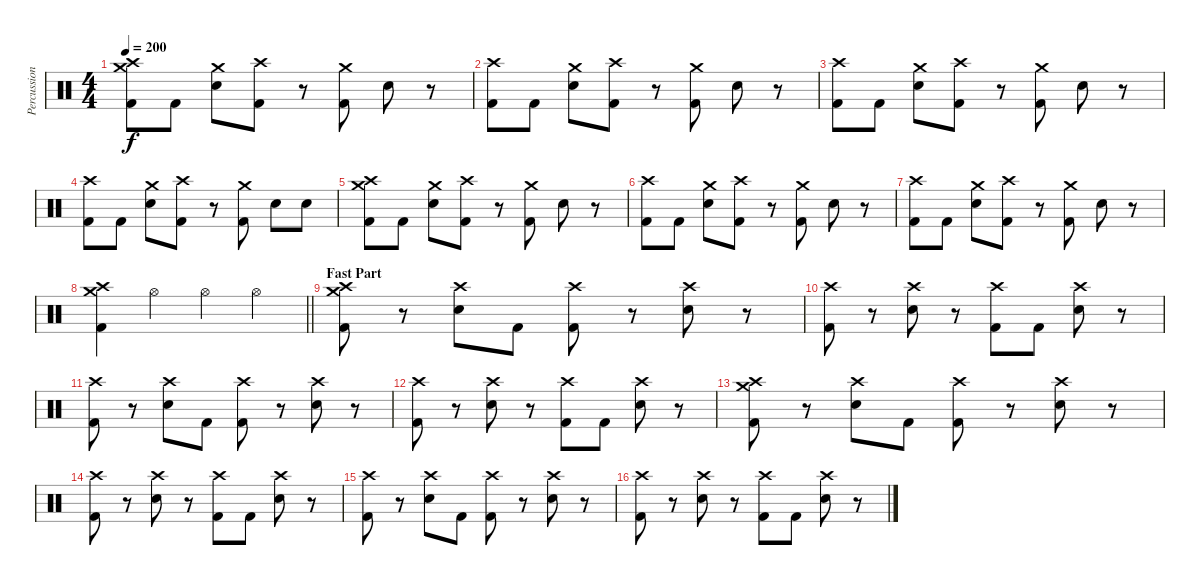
\track ("Percussion" "Percussion") {instrument percussion}
\staff {score}
\articulation defaults
\ts (4 4)
\tempo 200
\clef neutral
\ks c
("Crash high (hit)" "Crash medium (hit)" "Kick (hit) 2").8{dy f} "Kick (hit) 2".8 ("Crash medium (hit)" "Snare (hit) 2").8 ("Crash high (hit)" "Kick (hit) 2").8 r.8 ("Crash medium (hit)" "Kick (hit) 2").8 "Snare (hit) 2".8 r.8 |
("Crash high (hit)" "Kick (hit) 2").8 "Kick (hit) 2".8 ("Crash medium (hit)" "Snare (hit) 2").8 ("Crash high (hit)" "Kick (hit) 2").8 r.8 ("Crash medium (hit)" "Kick (hit) 2").8 "Snare (hit) 2".8 r.8 |
("Crash high (hit)" "Kick (hit) 2").8 "Kick (hit) 2".8 ("Crash medium (hit)" "Snare (hit) 2").8 ("Crash high (hit)" "Kick (hit) 2").8 r.8 ("Crash medium (hit)" "Kick (hit) 2").8 "Snare (hit) 2".8 r.8 |
("Crash high (hit)" "Kick (hit) 2").8 "Kick (hit) 2".8 ("Crash medium (hit)" "Snare (hit) 2").8 ("Crash high (hit)" "Kick (hit) 2").8 r.8 ("Crash medium (hit)" "Kick (hit) 2").8 "Snare (hit) 2".8 "Snare (hit) 2".8 |
("Crash high (hit)" "Crash medium (hit)" "Kick (hit) 2").8 "Kick (hit) 2".8 ("Crash medium (hit)" "Snare (hit) 2").8 ("Crash high (hit)" "Kick (hit) 2").8 r.8 ("Crash medium (hit)" "Kick (hit) 2").8 "Snare (hit) 2".8 r.8 |
("Crash high (hit)" "Kick (hit) 2").8 "Kick (hit) 2".8 ("Crash medium (hit)" "Snare (hit) 2").8 ("Crash high (hit)" "Kick (hit) 2").8 r.8 ("Crash medium (hit)" "Kick (hit) 2").8 "Snare (hit) 2".8 r.8 |
("Crash high (hit)" "Kick (hit) 2").8 "Kick (hit) 2".8 ("Crash medium (hit)" "Snare (hit) 2").8 ("Crash high (hit)" "Kick (hit) 2").8 r.8 ("Crash medium (hit)" "Kick (hit) 2").8 "Snare (hit) 2".8 r.8 |
\barLineRight lightlight
("Crash high (hit)" "Crash medium (hit)" "Kick (hit) 2").4 "Hi-Hat (open)".4 "Hi-Hat (open)".4 "Hi-Hat (open)".4 |
\section ("" "Fast Part")
("Crash high (hit)" "Crash medium (hit)" "Kick (hit) 2").8 r.8 ("Crash high (hit)" "Snare (hit) 2").8 "Kick (hit) 2".8 ("Crash high (hit)" "Kick (hit) 2").8 r.8 ("Crash high (hit)" "Snare (hit) 2").8 r.8 |
("Crash high (hit)" "Kick (hit) 2").8 r.8 ("Crash high (hit)" "Snare (hit) 2").8 r.8 ("Crash high (hit)" "Kick (hit) 2").8 "Kick (hit) 2".8 ("Crash high (hit)" "Snare (hit) 2").8 r.8 |
("Crash high (hit)" "Kick (hit) 2").8 r.8 ("Crash high (hit)" "Snare (hit) 2").8 "Kick (hit) 2".8 ("Crash high (hit)" "Kick (hit) 2").8 r.8 ("Crash high (hit)" "Snare (hit) 2").8 r.8 |
("Crash high (hit)" "Kick (hit) 2").8 r.8 ("Crash high (hit)" "Snare (hit) 2").8 r.8 ("Crash high (hit)" "Kick (hit) 2").8 "Kick (hit) 2".8 ("Crash high (hit)" "Snare (hit) 2").8 r.8 |
("Crash high (hit)" "Crash medium (hit)" "Kick (hit) 2").8 r.8 ("Crash high (hit)" "Snare (hit) 2").8 "Kick (hit) 2".8 ("Crash high (hit)" "Kick (hit) 2").8 r.8 ("Crash high (hit)" "Snare (hit) 2").8 r.8 |
("Crash high (hit)" "Kick (hit) 2").8 r.8 ("Crash high (hit)" "Snare (hit) 2").8 r.8 ("Crash high (hit)" "Kick (hit) 2").8 "Kick (hit) 2".8 ("Crash high (hit)" "Snare (hit) 2").8 r.8 |
("Crash high (hit)" "Kick (hit) 2").8 r.8 ("Crash high (hit)" "Snare (hit) 2").8 "Kick (hit) 2".8 ("Crash high (hit)" "Kick (hit) 2").8 r.8 ("Crash high (hit)" "Snare (hit) 2").8 r.8 |
("Crash high (hit)" "Kick (hit) 2").8 r.8 ("Crash high (hit)" "Snare (hit) 2").8 r.8 ("Crash high (hit)" "Kick (hit) 2").8 "Kick (hit) 2".8 ("Crash high (hit)" "Snare (hit) 2").8 r.8
